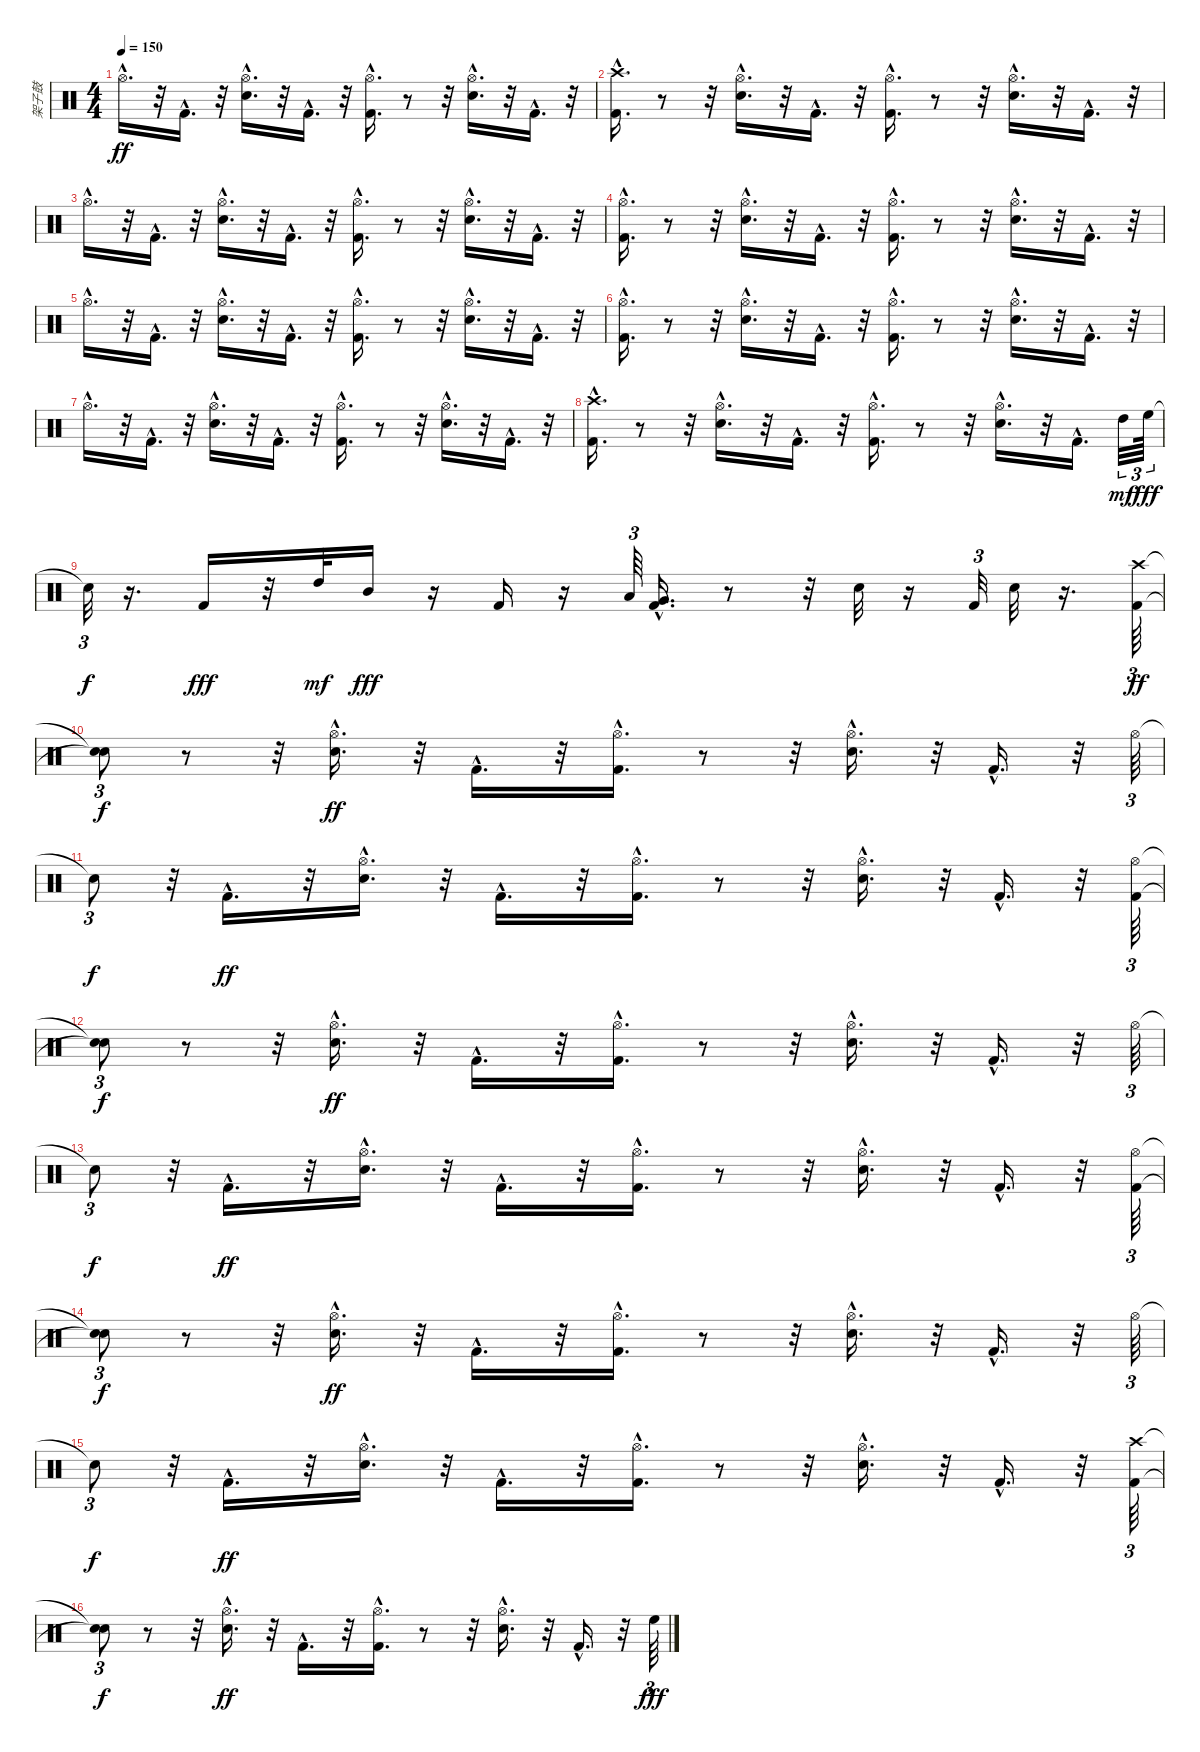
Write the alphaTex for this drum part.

\track ("架子鼓" "架子鼓") {instrument percussion}
\staff {score}
\articulation defaults
\ts (4 4)
\tempo 150
\clef neutral
\ks c "Hi-Hat (open)"{hac}.16{d dy ff}
r.32 "Kick (hit) 2"{hac}.16{d} r.32 ("Snare (hit) 2"{hac} "Hi-Hat (open)"{hac}).16{d} r.32 "Kick (hit) 2"{hac}.16{d} r.32 ("Kick (hit) 2"{hac} "Hi-Hat (open)"{hac}).16{d} r.8 r.32 ("Snare (hit) 2"{hac} "Hi-Hat (open)"{hac}).16{d} r.32 "Kick (hit) 2"{hac}.16{d} r.32 |
("Kick (hit) 2"{hac} "Crash high (hit)"{hac}).16{d} r.8 r.32 ("Snare (hit) 2"{hac} "Hi-Hat (open)"{hac}).16{d} r.32 "Kick (hit) 2"{hac}.16{d} r.32 ("Kick (hit) 2"{hac} "Hi-Hat (open)"{hac}).16{d} r.8 r.32 ("Hi-Hat (open)"{hac} "Snare (hit) 2"{hac}).16{d} r.32 "Kick (hit) 2"{hac}.16{d} r.32 |
"Hi-Hat (open)"{hac}.16{d} r.32 "Kick (hit) 2"{hac}.16{d} r.32 ("Hi-Hat (open)"{hac} "Snare (hit) 2"{hac}).16{d} r.32 "Kick (hit) 2"{hac}.16{d} r.32 ("Hi-Hat (open)"{hac} "Kick (hit) 2"{hac}).16{d} r.8 r.32 ("Snare (hit) 2"{hac} "Hi-Hat (open)"{hac}).16{d} r.32 "Kick (hit) 2"{hac}.16{d} r.32 |
("Hi-Hat (open)"{hac} "Kick (hit) 2"{hac}).16{d} r.8 r.32 ("Snare (hit) 2"{hac} "Hi-Hat (open)"{hac}).16{d} r.32 "Kick (hit) 2"{hac}.16{d} r.32 ("Kick (hit) 2"{hac} "Hi-Hat (open)"{hac}).16{d} r.8 r.32 ("Snare (hit) 2"{hac} "Hi-Hat (open)"{hac}).16{d} r.32 "Kick (hit) 2"{hac}.16{d} r.32 |
"Hi-Hat (open)"{hac}.16{d} r.32 "Kick (hit) 2"{hac}.16{d} r.32 ("Snare (hit) 2"{hac} "Hi-Hat (open)"{hac}).16{d} r.32 "Kick (hit) 2"{hac}.16{d} r.32 ("Kick (hit) 2"{hac} "Hi-Hat (open)"{hac}).16{d} r.8 r.32 ("Snare (hit) 2"{hac} "Hi-Hat (open)"{hac}).16{d} r.32 "Kick (hit) 2"{hac}.16{d} r.32 |
("Hi-Hat (open)"{hac} "Kick (hit) 2"{hac}).16{d} r.8 r.32 ("Snare (hit) 2"{hac} "Hi-Hat (open)"{hac}).16{d} r.32 "Kick (hit) 2"{hac}.16{d} r.32 ("Kick (hit) 2"{hac} "Hi-Hat (open)"{hac}).16{d} r.8 r.32 ("Snare (hit) 2"{hac} "Hi-Hat (open)"{hac}).16{d} r.32 "Kick (hit) 2"{hac}.16{d} r.32 |
"Hi-Hat (open)"{hac}.16{d} r.32 "Kick (hit) 2"{hac}.16{d} r.32 ("Snare (hit) 2"{hac} "Hi-Hat (open)"{hac}).16{d} r.32 "Kick (hit) 2"{hac}.16{d} r.32 ("Kick (hit) 2"{hac} "Hi-Hat (open)"{hac}).16{d} r.8 r.32 ("Snare (hit) 2"{hac} "Hi-Hat (open)"{hac}).16{d} r.32 "Kick (hit) 2"{hac}.16{d} r.32 |
("Kick (hit) 2"{hac} "Crash high (hit)"{hac}).16{d} r.8 r.32 ("Snare (hit) 2"{hac} "Hi-Hat (open)"{hac}).16{d} r.32 "Kick (hit) 2"{hac}.16{d} r.32 ("Kick (hit) 2"{hac} "Hi-Hat (open)"{hac}).16{d} r.8 r.32 ("Hi-Hat (open)"{hac} "Snare (hit) 2"{hac}).16{d} r.32 "Kick (hit) 2"{hac}.16{d} "High Tom (hit)".32{tu (3 2) dy mf} "High Floor Tom (hit)".64{tu (3 2) dy fff} |
"Snare (hit)"{t}.32{tu (3 2) dy f} r.16{d} "Kick (hit) 2".16{dy fff} r.32 "High Tom (hit)".32{dy mf} "Mid Tom (hit)".16{dy fff} r.16 "Kick (hit) 2".16 r.16 "Low Tom (hit)".64{tu (3 2)} ("Kick (hit) 2"{hac} "Very Low Tom (hit)").16{d} r.8 r.32 "Snare (hit) 2".32 r.16 "Kick (hit) 2".32{tu (3 2)} "Snare (hit) 2".32 r.16{d} ("Kick (hit) 2" "Crash high (hit)").64{tu (3 2) dy ff} |
("Snare (hit)"{t} "Snare (hit)"{t}).8{tu (3 2) dy f} r.8 r.32 ("Snare (hit) 2"{hac} "Hi-Hat (open)"{hac}).16{d dy ff} r.32 "Kick (hit) 2"{hac}.16{d} r.32 ("Kick (hit) 2"{hac} "Hi-Hat (open)"{hac}).16{d} r.8 r.32 ("Hi-Hat (open)"{hac} "Snare (hit) 2"{hac}).16{d} r.32 "Kick (hit) 2"{hac}.16{d} r.32 "Hi-Hat (open)".64{tu (3 2)} |
"Snare (hit)"{t}.8{tu (3 2) dy f} r.32 "Kick (hit) 2"{hac}.16{d dy ff} r.32 ("Hi-Hat (open)"{hac} "Snare (hit) 2"{hac}).16{d} r.32 "Kick (hit) 2"{hac}.16{d} r.32 ("Hi-Hat (open)"{hac} "Kick (hit) 2"{hac}).16{d} r.8 r.32 ("Snare (hit) 2"{hac} "Hi-Hat (open)"{hac}).16{d} r.32 "Kick (hit) 2"{hac}.16{d} r.32 ("Hi-Hat (open)" "Kick (hit) 2").64{tu (3 2)} |
("Snare (hit)"{t} "Snare (hit)"{t}).8{tu (3 2) dy f} r.8 r.32 ("Snare (hit) 2"{hac} "Hi-Hat (open)"{hac}).16{d dy ff} r.32 "Kick (hit) 2"{hac}.16{d} r.32 ("Kick (hit) 2"{hac} "Hi-Hat (open)"{hac}).16{d} r.8 r.32 ("Snare (hit) 2"{hac} "Hi-Hat (open)"{hac}).16{d} r.32 "Kick (hit) 2"{hac}.16{d} r.32 "Hi-Hat (open)".64{tu (3 2)} |
"Snare (hit)"{t}.8{tu (3 2) dy f} r.32 "Kick (hit) 2"{hac}.16{d dy ff} r.32 ("Snare (hit) 2"{hac} "Hi-Hat (open)"{hac}).16{d} r.32 "Kick (hit) 2"{hac}.16{d} r.32 ("Kick (hit) 2"{hac} "Hi-Hat (open)"{hac}).16{d} r.8 r.32 ("Snare (hit) 2"{hac} "Hi-Hat (open)"{hac}).16{d} r.32 "Kick (hit) 2"{hac}.16{d} r.32 ("Hi-Hat (open)" "Kick (hit) 2").64{tu (3 2)} |
("Snare (hit)"{t} "Snare (hit)"{t}).8{tu (3 2) dy f} r.8 r.32 ("Snare (hit) 2"{hac} "Hi-Hat (open)"{hac}).16{d dy ff} r.32 "Kick (hit) 2"{hac}.16{d} r.32 ("Kick (hit) 2"{hac} "Hi-Hat (open)"{hac}).16{d} r.8 r.32 ("Snare (hit) 2"{hac} "Hi-Hat (open)"{hac}).16{d} r.32 "Kick (hit) 2"{hac}.16{d} r.32 "Hi-Hat (open)".64{tu (3 2)} |
"Snare (hit)"{t}.8{tu (3 2) dy f} r.32 "Kick (hit) 2"{hac}.16{d dy ff} r.32 ("Snare (hit) 2"{hac} "Hi-Hat (open)"{hac}).16{d} r.32 "Kick (hit) 2"{hac}.16{d} r.32 ("Kick (hit) 2"{hac} "Hi-Hat (open)"{hac}).16{d} r.8 r.32 ("Snare (hit) 2"{hac} "Hi-Hat (open)"{hac}).16{d} r.32 "Kick (hit) 2"{hac}.16{d} r.32 ("Kick (hit) 2" "Crash high (hit)").64{tu (3 2)} |
("Snare (hit)"{t} "Snare (hit)"{t}).8{tu (3 2) dy f} r.8 r.32 ("Snare (hit) 2"{hac} "Hi-Hat (open)"{hac}).16{d dy ff} r.32 "Kick (hit) 2"{hac}.16{d} r.32 ("Kick (hit) 2"{hac} "Hi-Hat (open)"{hac}).16{d} r.8 r.32 ("Hi-Hat (open)"{hac} "Snare (hit) 2"{hac}).16{d} r.32 "Kick (hit) 2"{hac}.16{d} r.32 "High Floor Tom (hit)".64{tu (3 2) dy fff}
